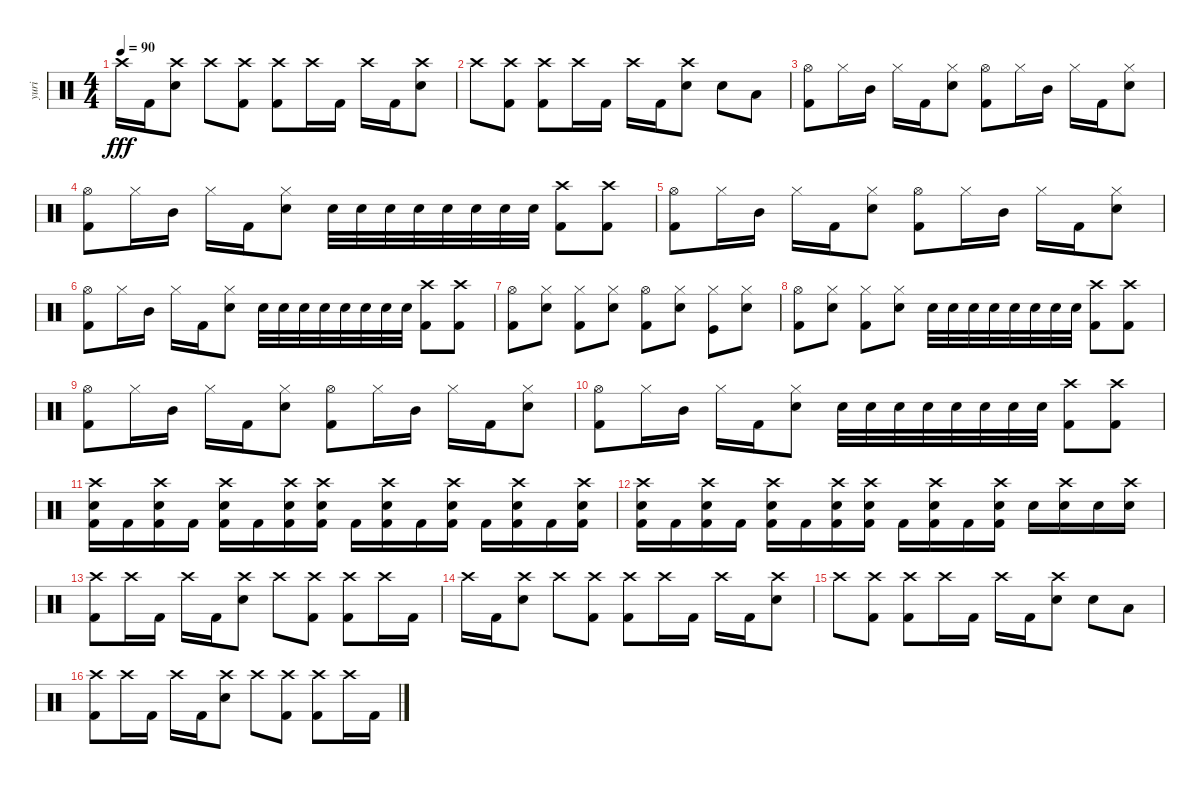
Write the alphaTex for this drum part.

\track ("yuri" "yuri") {instrument percussion}
\staff {score}
\articulation defaults
\ts (4 4)
\tempo 90
\clef neutral
\ks c "Crash high (hit)".16{dy fff} "Kick (hit) 2".16
("Crash high (hit)" "Snare (hit) 2").8 "Crash high (hit)".8 ("Crash high (hit)" "Kick (hit) 2").8 ("Crash high (hit)" "Kick (hit) 2").8 "Crash high (hit)".16 "Kick (hit) 2".16 "Crash high (hit)".16 "Kick (hit) 2".16 ("Crash high (hit)" "Snare (hit) 2").8 |
"Crash high (hit)".8 ("Crash high (hit)" "Kick (hit) 2").8 ("Crash high (hit)" "Kick (hit) 2").8 "Crash high (hit)".16 "Kick (hit) 2".16 "Crash high (hit)".16 "Kick (hit) 2".16 ("Crash high (hit)" "Snare (hit) 2").8 "Snare (hit) 2".8 "Low Tom (hit)".8 |
("Hi-Hat (open)" "Kick (hit) 2").8 "Hi-Hat (closed)".16 "Mid Tom (hit)".16 "Hi-Hat (closed)".16 "Kick (hit) 2".16 ("Hi-Hat (closed)" "Snare (hit) 2").8 ("Hi-Hat (open)" "Kick (hit) 2").8 "Hi-Hat (closed)".16 "Mid Tom (hit)".16 "Hi-Hat (closed)".16 "Kick (hit) 2".16 ("Hi-Hat (closed)" "Snare (hit) 2").8 |
("Hi-Hat (open)" "Kick (hit) 2").8 "Hi-Hat (closed)".16 "Mid Tom (hit)".16 "Hi-Hat (closed)".16 "Kick (hit) 2".16 ("Hi-Hat (closed)" "Snare (hit) 2").8 "Snare (hit) 2".32 "Snare (hit) 2".32 "Snare (hit) 2".32 "Snare (hit) 2".32 "Snare (hit) 2".32 "Snare (hit) 2".32 "Snare (hit) 2".32 "Snare (hit) 2".32 ("Crash high (hit)" "Kick (hit) 2").8 ("Crash high (hit)" "Kick (hit) 2").8 |
("Hi-Hat (open)" "Kick (hit) 2").8 "Hi-Hat (closed)".16 "Mid Tom (hit)".16 "Hi-Hat (closed)".16 "Kick (hit) 2".16 ("Hi-Hat (closed)" "Snare (hit) 2").8 ("Hi-Hat (open)" "Kick (hit) 2").8 "Hi-Hat (closed)".16 "Mid Tom (hit)".16 "Hi-Hat (closed)".16 "Kick (hit) 2".16 ("Hi-Hat (closed)" "Snare (hit) 2").8 |
("Hi-Hat (open)" "Kick (hit) 2").8 "Hi-Hat (closed)".16 "Mid Tom (hit)".16 "Hi-Hat (closed)".16 "Kick (hit) 2".16 ("Hi-Hat (closed)" "Snare (hit) 2").8 "Snare (hit) 2".32 "Snare (hit) 2".32 "Snare (hit) 2".32 "Snare (hit) 2".32 "Snare (hit) 2".32 "Snare (hit) 2".32 "Snare (hit) 2".32 "Snare (hit) 2".32 ("Crash high (hit)" "Kick (hit) 2").8 ("Crash high (hit)" "Kick (hit) 2").8 |
("Hi-Hat (open)" "Kick (hit) 2").8 ("Hi-Hat (closed)" "Snare (hit) 2").8 ("Hi-Hat (closed)" "Kick (hit) 2").8 ("Hi-Hat (closed)" "Snare (hit) 2").8 ("Hi-Hat (open)" "Kick (hit) 2").8 ("Hi-Hat (closed)" "Snare (hit) 2").8 ("Hi-Hat (closed)" "Kick (hit)").8 ("Hi-Hat (closed)" "Snare (hit) 2").8 |
("Hi-Hat (open)" "Kick (hit) 2").8 ("Hi-Hat (closed)" "Snare (hit) 2").8 ("Hi-Hat (closed)" "Kick (hit) 2").8 ("Hi-Hat (closed)" "Snare (hit) 2").8 "Snare (hit) 2".32 "Snare (hit) 2".32 "Snare (hit) 2".32 "Snare (hit) 2".32 "Snare (hit) 2".32 "Snare (hit) 2".32 "Snare (hit) 2".32 "Snare (hit) 2".32 ("Crash high (hit)" "Kick (hit) 2").8 ("Crash high (hit)" "Kick (hit) 2").8 |
("Hi-Hat (open)" "Kick (hit) 2").8 "Hi-Hat (closed)".16 "Mid Tom (hit)".16 "Hi-Hat (closed)".16 "Kick (hit) 2".16 ("Hi-Hat (closed)" "Snare (hit) 2").8 ("Hi-Hat (open)" "Kick (hit) 2").8 "Hi-Hat (closed)".16 "Mid Tom (hit)".16 "Hi-Hat (closed)".16 "Kick (hit) 2".16 ("Hi-Hat (closed)" "Snare (hit) 2").8 |
("Hi-Hat (open)" "Kick (hit) 2").8 "Hi-Hat (closed)".16 "Mid Tom (hit)".16 "Hi-Hat (closed)".16 "Kick (hit) 2".16 ("Hi-Hat (closed)" "Snare (hit) 2").8 "Snare (hit) 2".32 "Snare (hit) 2".32 "Snare (hit) 2".32 "Snare (hit) 2".32 "Snare (hit) 2".32 "Snare (hit) 2".32 "Snare (hit) 2".32 "Snare (hit) 2".32 ("Crash high (hit)" "Kick (hit) 2").8 ("Crash high (hit)" "Kick (hit) 2").8 |
("Crash high (hit)" "Snare (hit) 2" "Kick (hit) 2").16 "Kick (hit) 2".16 ("Crash high (hit)" "Snare (hit) 2" "Kick (hit) 2").16 "Kick (hit) 2".16 ("Crash high (hit)" "Snare (hit) 2" "Kick (hit) 2").16 "Kick (hit) 2".16 ("Crash high (hit)" "Snare (hit) 2" "Kick (hit) 2").16 ("Crash high (hit)" "Snare (hit) 2" "Kick (hit) 2").16 "Kick (hit) 2".16 ("Crash high (hit)" "Snare (hit) 2" "Kick (hit) 2").16 "Kick (hit) 2".16 ("Crash high (hit)" "Snare (hit) 2" "Kick (hit) 2").16 "Kick (hit) 2".16 ("Crash high (hit)" "Snare (hit) 2" "Kick (hit) 2").16 "Kick (hit) 2".16 ("Crash high (hit)" "Snare (hit) 2" "Kick (hit) 2").16 |
("Crash high (hit)" "Snare (hit) 2" "Kick (hit) 2").16 "Kick (hit) 2".16 ("Crash high (hit)" "Snare (hit) 2" "Kick (hit) 2").16 "Kick (hit) 2".16 ("Crash high (hit)" "Snare (hit) 2" "Kick (hit) 2").16 "Kick (hit) 2".16 ("Crash high (hit)" "Snare (hit) 2" "Kick (hit) 2").16 ("Crash high (hit)" "Snare (hit) 2" "Kick (hit) 2").16 "Kick (hit) 2".16 ("Crash high (hit)" "Snare (hit) 2" "Kick (hit) 2").16 "Kick (hit) 2".16 ("Crash high (hit)" "Snare (hit) 2" "Kick (hit) 2").16 "Snare (hit) 2".16 ("Crash high (hit)" "Snare (hit) 2").16 "Snare (hit) 2".16 ("Crash high (hit)" "Snare (hit) 2").16 |
("Crash high (hit)" "Kick (hit) 2").8 "Crash high (hit)".16 "Kick (hit) 2".16 "Crash high (hit)".16 "Kick (hit) 2".16 ("Crash high (hit)" "Snare (hit) 2").8 "Crash high (hit)".8 ("Crash high (hit)" "Kick (hit) 2").8 ("Crash high (hit)" "Kick (hit) 2").8 "Crash high (hit)".16 "Kick (hit) 2".16 |
"Crash high (hit)".16 "Kick (hit) 2".16 ("Crash high (hit)" "Snare (hit) 2").8 "Crash high (hit)".8 ("Crash high (hit)" "Kick (hit) 2").8 ("Crash high (hit)" "Kick (hit) 2").8 "Crash high (hit)".16 "Kick (hit) 2".16 "Crash high (hit)".16 "Kick (hit) 2".16 ("Crash high (hit)" "Snare (hit) 2").8 |
"Crash high (hit)".8 ("Crash high (hit)" "Kick (hit) 2").8 ("Crash high (hit)" "Kick (hit) 2").8 "Crash high (hit)".16 "Kick (hit) 2".16 "Crash high (hit)".16 "Kick (hit) 2".16 ("Crash high (hit)" "Snare (hit) 2").8 "Snare (hit) 2".8 "Low Tom (hit)".8 |
("Crash high (hit)" "Kick (hit) 2").8 "Crash high (hit)".16 "Kick (hit) 2".16 "Crash high (hit)".16 "Kick (hit) 2".16 ("Crash high (hit)" "Snare (hit) 2").8 "Crash high (hit)".8 ("Crash high (hit)" "Kick (hit) 2").8 ("Crash high (hit)" "Kick (hit) 2").8 "Crash high (hit)".16 "Kick (hit) 2".16
